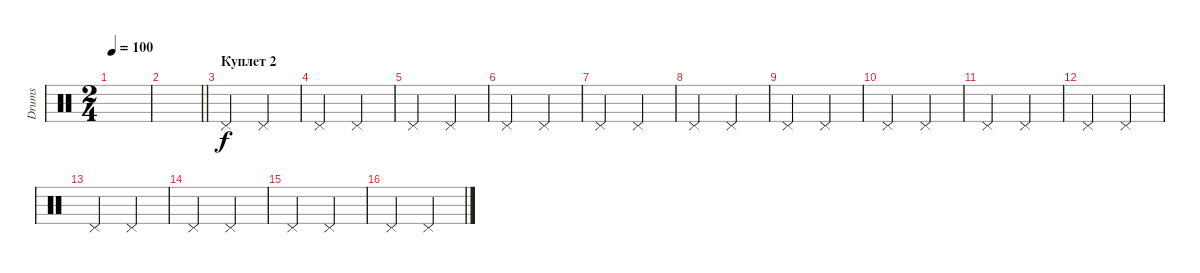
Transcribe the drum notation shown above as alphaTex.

\track ("Drums" "Drums") {instrument percussion}
\staff {score}
\articulation defaults
\ts (2 4)
\tempo 100
\clef neutral
\ks c
|
\barLineRight lightlight
|
\section ("" "Куплет 2")
"Pedal Hi-Hat (hit)".4 "Pedal Hi-Hat (hit)".4 |
"Pedal Hi-Hat (hit)".4 "Pedal Hi-Hat (hit)".4 |
"Pedal Hi-Hat (hit)".4 "Pedal Hi-Hat (hit)".4 |
"Pedal Hi-Hat (hit)".4 "Pedal Hi-Hat (hit)".4 |
"Pedal Hi-Hat (hit)".4 "Pedal Hi-Hat (hit)".4 |
"Pedal Hi-Hat (hit)".4 "Pedal Hi-Hat (hit)".4 |
"Pedal Hi-Hat (hit)".4 "Pedal Hi-Hat (hit)".4 |
"Pedal Hi-Hat (hit)".4 "Pedal Hi-Hat (hit)".4 |
"Pedal Hi-Hat (hit)".4 "Pedal Hi-Hat (hit)".4 |
"Pedal Hi-Hat (hit)".4 "Pedal Hi-Hat (hit)".4 |
"Pedal Hi-Hat (hit)".4 "Pedal Hi-Hat (hit)".4 |
"Pedal Hi-Hat (hit)".4 "Pedal Hi-Hat (hit)".4 |
"Pedal Hi-Hat (hit)".4 "Pedal Hi-Hat (hit)".4 |
"Pedal Hi-Hat (hit)".4 "Pedal Hi-Hat (hit)".4
